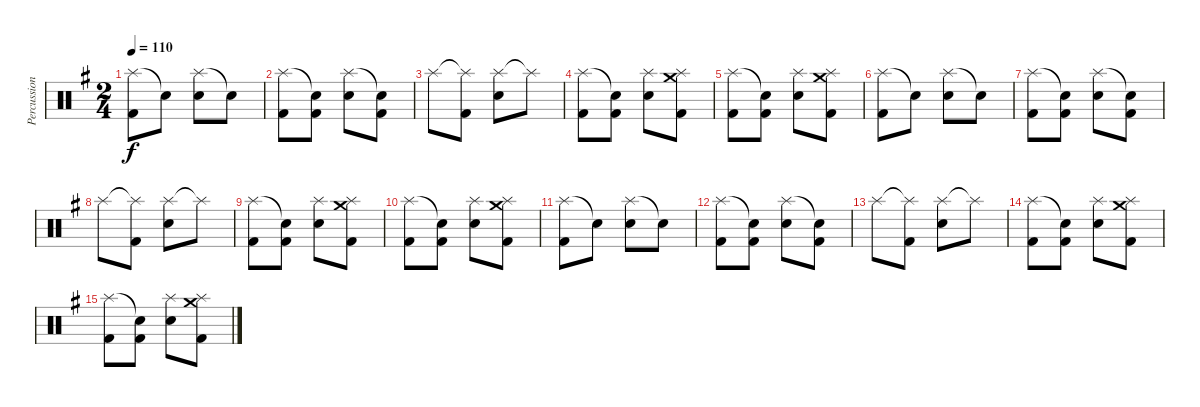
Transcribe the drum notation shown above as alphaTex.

\track ("Percussion" "Percussion") {instrument percussion}
\staff {score}
\articulation defaults
\ts (2 4)
\tempo 110
\clef neutral
\ks g
("Splash (hit)" "Kick (hit) 2").8{dy f} "Snare (hit)"{t}.8 ("Splash (hit)" "Electric Snare (hit)").8 "Snare (hit)"{t}.8 |
("Splash (hit)" "Kick (hit) 2").8 ("Snare (hit)"{t} "Kick (hit) 2").8 ("Splash (hit)" "Electric Snare (hit)").8 ("Snare (hit)"{t} "Kick (hit) 2").8 |
"Splash (hit)".8 ("Splash (hit)"{t} "Kick (hit) 2").8 ("Splash (hit)" "Electric Snare (hit)").8 "Splash (hit)"{t}.8 |
("Splash (hit)" "Kick (hit) 2").8 ("Snare (hit)"{t} "Kick (hit) 2").8 ("Splash (hit)" "Electric Snare (hit)").8 ("Crash medium (hit)" "Splash (hit)" "Kick (hit) 2").8 |
("Splash (hit)" "Kick (hit) 2").8 ("Snare (hit)"{t} "Kick (hit) 2").8 ("Splash (hit)" "Electric Snare (hit)").8 ("Crash medium (hit)" "Splash (hit)" "Kick (hit) 2").8 |
("Splash (hit)" "Kick (hit) 2").8 "Snare (hit)"{t}.8 ("Splash (hit)" "Electric Snare (hit)").8 "Snare (hit)"{t}.8 |
("Splash (hit)" "Kick (hit) 2").8 ("Snare (hit)"{t} "Kick (hit) 2").8 ("Splash (hit)" "Electric Snare (hit)").8 ("Snare (hit)"{t} "Kick (hit) 2").8 |
"Splash (hit)".8 ("Splash (hit)"{t} "Kick (hit) 2").8 ("Splash (hit)" "Electric Snare (hit)").8 "Splash (hit)"{t}.8 |
("Splash (hit)" "Kick (hit) 2").8 ("Snare (hit)"{t} "Kick (hit) 2").8 ("Splash (hit)" "Electric Snare (hit)").8 ("Crash medium (hit)" "Splash (hit)" "Kick (hit) 2").8 |
("Splash (hit)" "Kick (hit) 2").8 ("Snare (hit)"{t} "Kick (hit) 2").8 ("Splash (hit)" "Electric Snare (hit)").8 ("Crash medium (hit)" "Splash (hit)" "Kick (hit) 2").8 |
("Splash (hit)" "Kick (hit) 2").8 "Snare (hit)"{t}.8 ("Splash (hit)" "Electric Snare (hit)").8 "Snare (hit)"{t}.8 |
("Splash (hit)" "Kick (hit) 2").8 ("Snare (hit)"{t} "Kick (hit) 2").8 ("Splash (hit)" "Electric Snare (hit)").8 ("Snare (hit)"{t} "Kick (hit) 2").8 |
"Splash (hit)".8 ("Splash (hit)"{t} "Kick (hit) 2").8 ("Splash (hit)" "Electric Snare (hit)").8 "Splash (hit)"{t}.8 |
("Splash (hit)" "Kick (hit) 2").8 ("Snare (hit)"{t} "Kick (hit) 2").8 ("Splash (hit)" "Electric Snare (hit)").8 ("Crash medium (hit)" "Splash (hit)" "Kick (hit) 2").8 |
("Splash (hit)" "Kick (hit) 2").8 ("Snare (hit)"{t} "Kick (hit) 2").8 ("Splash (hit)" "Electric Snare (hit)").8 ("Crash medium (hit)" "Splash (hit)" "Kick (hit) 2").8
